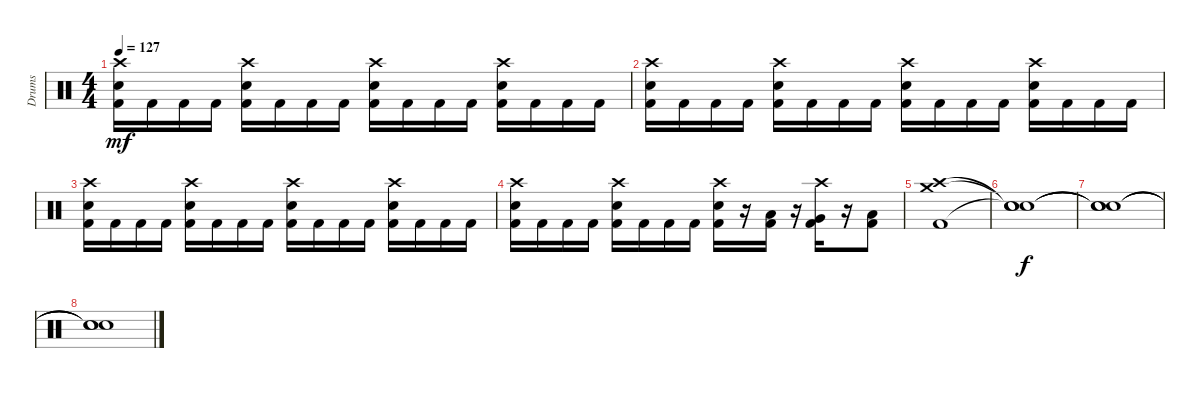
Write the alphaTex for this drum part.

\track ("Drums" "Drums") {instrument percussion}
\staff {score}
\articulation defaults
\ts (4 4)
\tempo 127
\clef neutral
\ks c
("Crash high (hit)" "Electric Snare (hit)" "Kick (hit) 2").16{dy mf} "Kick (hit) 2".16 "Kick (hit) 2".16 "Kick (hit) 2".16 ("Crash high (hit)" "Electric Snare (hit)" "Kick (hit) 2").16 "Kick (hit) 2".16 "Kick (hit) 2".16 "Kick (hit) 2".16 ("Crash high (hit)" "Electric Snare (hit)" "Kick (hit) 2").16 "Kick (hit) 2".16 "Kick (hit) 2".16 "Kick (hit) 2".16 ("Crash high (hit)" "Electric Snare (hit)" "Kick (hit) 2").16 "Kick (hit) 2".16 "Kick (hit) 2".16 "Kick (hit) 2".16 |
("Crash high (hit)" "Electric Snare (hit)" "Kick (hit) 2").16 "Kick (hit) 2".16 "Kick (hit) 2".16 "Kick (hit) 2".16 ("Crash high (hit)" "Electric Snare (hit)" "Kick (hit) 2").16 "Kick (hit) 2".16 "Kick (hit) 2".16 "Kick (hit) 2".16 ("Crash high (hit)" "Electric Snare (hit)" "Kick (hit) 2").16 "Kick (hit) 2".16 "Kick (hit) 2".16 "Kick (hit) 2".16 ("Crash high (hit)" "Electric Snare (hit)" "Kick (hit) 2").16 "Kick (hit) 2".16 "Kick (hit) 2".16 "Kick (hit) 2".16 |
("Crash high (hit)" "Electric Snare (hit)" "Kick (hit) 2").16 "Kick (hit) 2".16 "Kick (hit) 2".16 "Kick (hit) 2".16 ("Crash high (hit)" "Electric Snare (hit)" "Kick (hit) 2").16 "Kick (hit) 2".16 "Kick (hit) 2".16 "Kick (hit) 2".16 ("Crash high (hit)" "Electric Snare (hit)" "Kick (hit) 2").16 "Kick (hit) 2".16 "Kick (hit) 2".16 "Kick (hit) 2".16 ("Crash high (hit)" "Electric Snare (hit)" "Kick (hit) 2").16 "Kick (hit) 2".16 "Kick (hit) 2".16 "Kick (hit) 2".16 |
("Crash high (hit)" "Electric Snare (hit)" "Kick (hit) 2").16 "Kick (hit) 2".16 "Kick (hit) 2".16 "Kick (hit) 2".16 ("Crash high (hit)" "Electric Snare (hit)" "Kick (hit) 2").16 "Kick (hit) 2".16 "Kick (hit) 2".16 "Kick (hit) 2".16 ("Crash high (hit)" "Electric Snare (hit)" "Kick (hit) 2").16 r.16 ("Low Tom (hit)" "Kick (hit) 2").16 r.16 ("Crash high (hit)" "Very Low Tom (hit)" "Kick (hit) 2").16 r.16 ("Low Floor Tom (hit)" "Kick (hit) 2").8 |
("Crash medium (hit)" "Crash high (hit)" "Kick (hit) 2").1 |
("Snare (hit)"{t} "Snare (hit)"{t} "Snare (hit)"{t}).1{dy f} |
("Snare (hit)"{t} "Snare (hit)"{t} "Snare (hit)"{t}).1 |
("Snare (hit)"{t} "Snare (hit)"{t} "Snare (hit)"{t}).1
